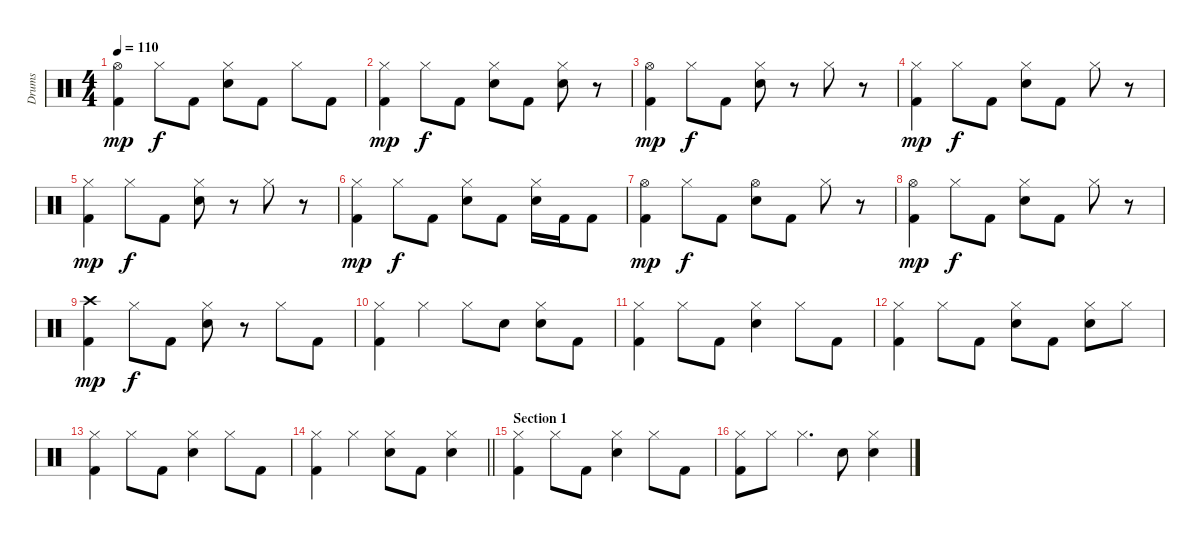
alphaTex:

\track ("Drums" "Drums") {instrument percussion}
\staff {score}
\articulation defaults
\ts (4 4)
\tempo 110
\clef neutral
\ks c
("Hi-Hat (open)" "Kick (hit) 2").4{dy mp} "Hi-Hat (closed)".8{dy f} "Kick (hit) 2".8 ("Hi-Hat (closed)" "Snare (hit) 2").8 "Kick (hit) 2".8 "Hi-Hat (closed)".8 "Kick (hit) 2".8 |
("Hi-Hat (closed)" "Kick (hit) 2").4{dy mp} "Hi-Hat (closed)".8{dy f} "Kick (hit) 2".8 ("Hi-Hat (closed)" "Snare (hit) 2").8 "Kick (hit) 2".8 ("Hi-Hat (closed)" "Snare (hit) 2").8 r.8 |
("Hi-Hat (open)" "Kick (hit) 2").4{dy mp} "Hi-Hat (closed)".8{dy f} "Kick (hit) 2".8 ("Hi-Hat (closed)" "Snare (hit) 2").8 r.8 "Hi-Hat (closed)".8 r.8 |
("Hi-Hat (closed)" "Kick (hit) 2").4{dy mp} "Hi-Hat (closed)".8{dy f} "Kick (hit) 2".8 ("Hi-Hat (closed)" "Snare (hit) 2").8 "Kick (hit) 2".8 "Hi-Hat (closed)".8 r.8 |
("Hi-Hat (closed)" "Kick (hit) 2").4{dy mp} "Hi-Hat (closed)".8{dy f} "Kick (hit) 2".8 ("Hi-Hat (closed)" "Snare (hit) 2").8 r.8 "Hi-Hat (closed)".8 r.8 |
("Hi-Hat (closed)" "Kick (hit) 2").4{dy mp} "Hi-Hat (closed)".8{dy f} "Kick (hit) 2".8 ("Hi-Hat (closed)" "Snare (hit) 2").8 "Kick (hit) 2".8 ("Hi-Hat (closed)" "Snare (hit) 2").16 "Kick (hit) 2".16 "Kick (hit) 2".8 |
("Hi-Hat (open)" "Kick (hit) 2").4{dy mp} "Hi-Hat (closed)".8{dy f} "Kick (hit) 2".8 ("Hi-Hat (open)" "Snare (hit) 2").8 "Kick (hit) 2".8 "Hi-Hat (closed)".8 r.8 |
("Hi-Hat (open)" "Kick (hit) 2").4{dy mp} "Hi-Hat (closed)".8{dy f} "Kick (hit) 2".8 ("Hi-Hat (closed)" "Snare (hit) 2").8 "Kick (hit) 2".8 "Hi-Hat (closed)".8 r.8 |
("Crash high (hit)" "Kick (hit) 2").4{dy mp} "Hi-Hat (closed)".8{dy f} "Kick (hit) 2".8 ("Hi-Hat (closed)" "Snare (hit) 2").8 r.8 "Hi-Hat (closed)".8 "Kick (hit) 2".8 |
("Hi-Hat (closed)" "Kick (hit) 2").4 "Hi-Hat (closed)".4 "Hi-Hat (closed)".8 "Snare (hit) 2".8 ("Hi-Hat (closed)" "Snare (hit) 2").8 "Kick (hit) 2".8 |
("Hi-Hat (closed)" "Kick (hit) 2").4 "Hi-Hat (closed)".8 "Kick (hit) 2".8 ("Hi-Hat (closed)" "Snare (hit) 2").4 "Hi-Hat (closed)".8 "Kick (hit) 2".8 |
("Hi-Hat (closed)" "Kick (hit) 2").4 "Hi-Hat (closed)".8 "Kick (hit) 2".8 ("Hi-Hat (closed)" "Snare (hit) 2").8 "Kick (hit) 2".8 ("Hi-Hat (closed)" "Snare (hit) 2").8 "Hi-Hat (closed)".8 |
("Hi-Hat (closed)" "Kick (hit) 2").4 "Hi-Hat (closed)".8 "Kick (hit) 2".8 ("Hi-Hat (closed)" "Snare (hit) 2").4 "Hi-Hat (closed)".8 "Kick (hit) 2".8 |
\barLineRight lightlight
("Hi-Hat (closed)" "Kick (hit) 2").4 "Hi-Hat (closed)".4 ("Hi-Hat (closed)" "Snare (hit) 2").8 "Kick (hit) 2".8 ("Hi-Hat (closed)" "Snare (hit) 2").4 |
\section ("" "Section 1")
("Hi-Hat (closed)" "Kick (hit) 2").4 "Hi-Hat (closed)".8 "Kick (hit) 2".8 ("Hi-Hat (closed)" "Snare (hit) 2").4 "Hi-Hat (closed)".8 "Kick (hit) 2".8 |
("Hi-Hat (closed)" "Kick (hit) 2").8 "Hi-Hat (closed)".8 "Hi-Hat (closed)".4{d} "Snare (hit) 2".8 ("Hi-Hat (closed)" "Snare (hit) 2").4
